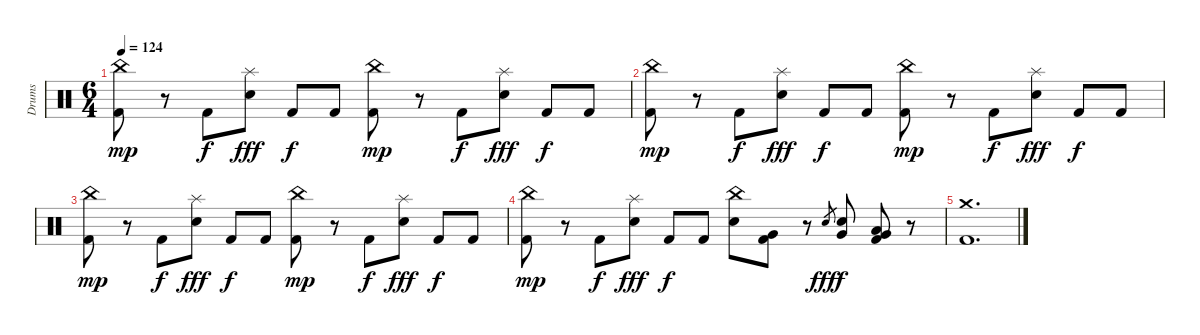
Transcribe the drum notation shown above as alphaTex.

\track ("Drums" "Drums") {instrument percussion}
\staff {score}
\articulation defaults
\ts (6 4)
\tempo 124
\clef neutral
\ks c
("China (hit)" "Kick (hit) 2").8{dy mp} r.8 "Kick (hit) 2".8{dy f} ("Splash (hit)" "Electric Snare (hit)").8{dy fff} "Kick (hit) 2".8{dy f} "Kick (hit) 2".8 ("China (hit)" "Kick (hit) 2").8{dy mp} r.8 "Kick (hit) 2".8{dy f} ("Splash (hit)" "Electric Snare (hit)").8{dy fff} "Kick (hit) 2".8{dy f} "Kick (hit) 2".8 |
("China (hit)" "Kick (hit) 2").8{dy mp} r.8 "Kick (hit) 2".8{dy f} ("Splash (hit)" "Electric Snare (hit)").8{dy fff} "Kick (hit) 2".8{dy f} "Kick (hit) 2".8 ("China (hit)" "Kick (hit) 2").8{dy mp} r.8 "Kick (hit) 2".8{dy f} ("Splash (hit)" "Electric Snare (hit)").8{dy fff} "Kick (hit) 2".8{dy f} "Kick (hit) 2".8 |
("China (hit)" "Kick (hit) 2").8{dy mp} r.8 "Kick (hit) 2".8{dy f} ("Splash (hit)" "Electric Snare (hit)").8{dy fff} "Kick (hit) 2".8{dy f} "Kick (hit) 2".8 ("China (hit)" "Kick (hit) 2").8{dy mp} r.8 "Kick (hit) 2".8{dy f} ("Splash (hit)" "Electric Snare (hit)").8{dy fff} "Kick (hit) 2".8{dy f} "Kick (hit) 2".8 |
("China (hit)" "Kick (hit) 2").8{dy mp} r.8 "Kick (hit) 2".8{dy f} ("Splash (hit)" "Electric Snare (hit)").8{dy fff} "Kick (hit) 2".8{dy f} "Kick (hit) 2".8 ("China (hit)" "Electric Snare (hit)").8 ("Very Low Tom (hit)" "Kick (hit) 2").8 r.8 "Electric Snare (hit)".8{gr dy fff} ("Electric Snare (hit)" "Very Low Tom (hit)").8{dy f} ("Very Low Tom (hit)" "Low Floor Tom (hit)" "Kick (hit) 2").8 r.8 |
("Crash medium (hit)" "Kick (hit) 2").1{d}
